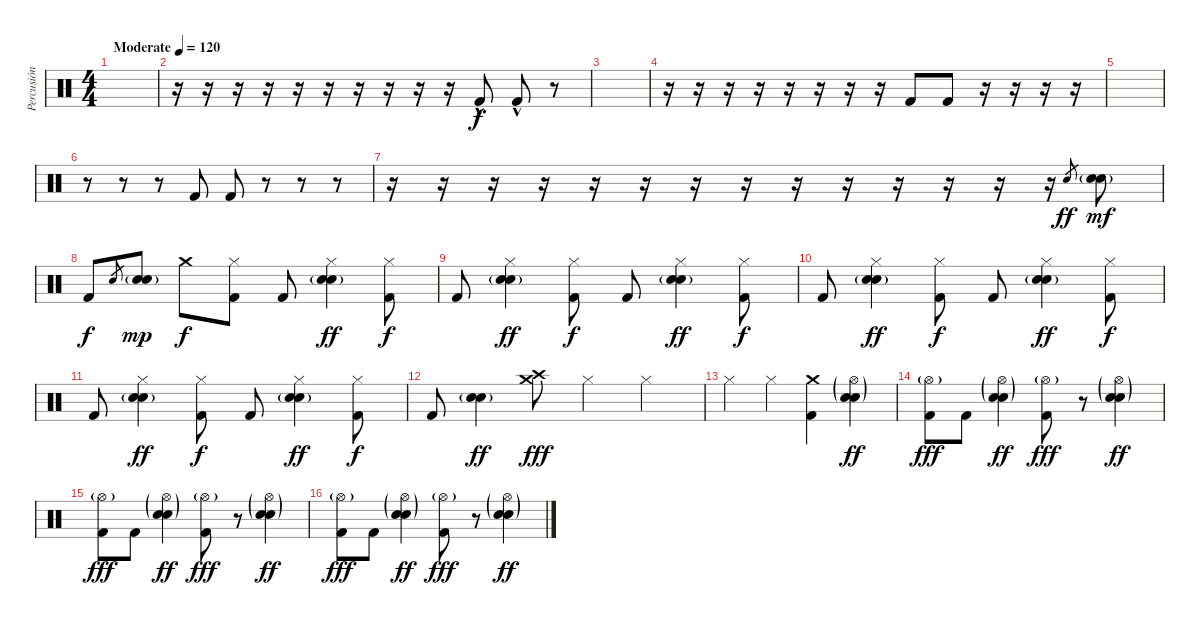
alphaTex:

\track ("Percusión" "Percusión") {instrument percussion}
\staff {score}
\articulation defaults
\ts (4 4)
\tempo (120 "Moderate")
\clef neutral
\ks c
|
r.16 r.16 r.16 r.16 r.16 r.16 r.16 r.16 r.16 r.16 "Kick (hit) 2"{hac}.8 "Kick (hit) 2"{hac}.8 r.8 |
|
r.16 r.16 r.16 r.16 r.16 r.16 r.16 r.16 "Kick (hit) 2".8{dy f} "Kick (hit) 2".8 r.16 r.16 r.16 r.16 |
|
r.8 r.8 r.8 "Kick (hit) 2".8 "Kick (hit) 2".8 r.8 r.8 r.8 |
r.16 r.16 r.16 r.16 r.16 r.16 r.16 r.16 r.16 r.16 r.16 r.16 r.16 r.16 "Snare (hit) 2".8{gr dy ff} ("Snare (hit) 2" "Electric Snare (hit)"{g}).8{dy mf} |
"Kick (hit) 2".8{dy f} "Snare (hit) 2".8{gr} ("Snare (hit) 2" "Electric Snare (hit)"{g}).8{dy mp} "Crash medium (hit)".8{dy f} ("Hi-Hat (closed)" "Kick (hit) 2").8 "Kick (hit) 2".8 ("Hi-Hat (closed)" "Electric Snare (hit)"{g} "Snare (hit) 2").4{dy ff} ("Hi-Hat (closed)" "Kick (hit) 2").8{dy f} |
"Kick (hit) 2".8 ("Hi-Hat (closed)" "Electric Snare (hit)"{g} "Snare (hit) 2").4{dy ff} ("Hi-Hat (closed)" "Kick (hit) 2").8{dy f} "Kick (hit) 2".8 ("Hi-Hat (closed)" "Electric Snare (hit)"{g} "Snare (hit) 2").4{dy ff} ("Hi-Hat (closed)" "Kick (hit) 2").8{dy f} |
"Kick (hit) 2".8 ("Hi-Hat (closed)" "Electric Snare (hit)"{g} "Snare (hit) 2").4{dy ff} ("Hi-Hat (closed)" "Kick (hit) 2").8{dy f} "Kick (hit) 2".8 ("Hi-Hat (closed)" "Electric Snare (hit)"{g} "Snare (hit) 2").4{dy ff} ("Hi-Hat (closed)" "Kick (hit) 2").8{dy f} |
"Kick (hit) 2".8 ("Hi-Hat (closed)" "Electric Snare (hit)"{g} "Snare (hit) 2").4{dy ff} ("Hi-Hat (closed)" "Kick (hit) 2").8{dy f} "Kick (hit) 2".8 ("Hi-Hat (closed)" "Electric Snare (hit)"{g} "Snare (hit) 2").4{dy ff} ("Hi-Hat (closed)" "Kick (hit) 2").8{dy f} |
"Kick (hit) 2".8 ("Electric Snare (hit)"{g} "Snare (hit) 2").4{dy ff} ("Crash medium (hit)" "Crash high (hit)").8{dy fff} "Hi-Hat (closed)".4 "Hi-Hat (closed)".4 |
"Hi-Hat (closed)".4 "Hi-Hat (closed)".4 ("Crash medium (hit)" "Kick (hit) 2").4 ("Hi-Hat (open)"{g} "Electric Snare (hit)"{g} "Snare (hit) 2").4{dy ff} |
("Hi-Hat (open)"{g} "Kick (hit) 2").8{dy fff} "Kick (hit) 2".8 ("Hi-Hat (open)"{g} "Electric Snare (hit)"{g} "Snare (hit) 2").4{dy ff} ("Hi-Hat (open)"{g} "Kick (hit) 2").8{dy fff} r.8 ("Hi-Hat (open)"{g} "Electric Snare (hit)"{g} "Snare (hit) 2").4{dy ff} |
("Hi-Hat (open)"{g} "Kick (hit) 2").8{dy fff} "Kick (hit) 2".8 ("Hi-Hat (open)"{g} "Electric Snare (hit)"{g} "Snare (hit) 2").4{dy ff} ("Hi-Hat (open)"{g} "Kick (hit) 2").8{dy fff} r.8 ("Hi-Hat (open)"{g} "Electric Snare (hit)"{g} "Snare (hit) 2").4{dy ff} |
("Hi-Hat (open)"{g} "Kick (hit) 2").8{dy fff} "Kick (hit) 2".8 ("Hi-Hat (open)"{g} "Electric Snare (hit)"{g} "Snare (hit) 2").4{dy ff} ("Hi-Hat (open)"{g} "Kick (hit) 2").8{dy fff} r.8 ("Hi-Hat (open)"{g} "Electric Snare (hit)"{g} "Snare (hit) 2").4{dy ff}
